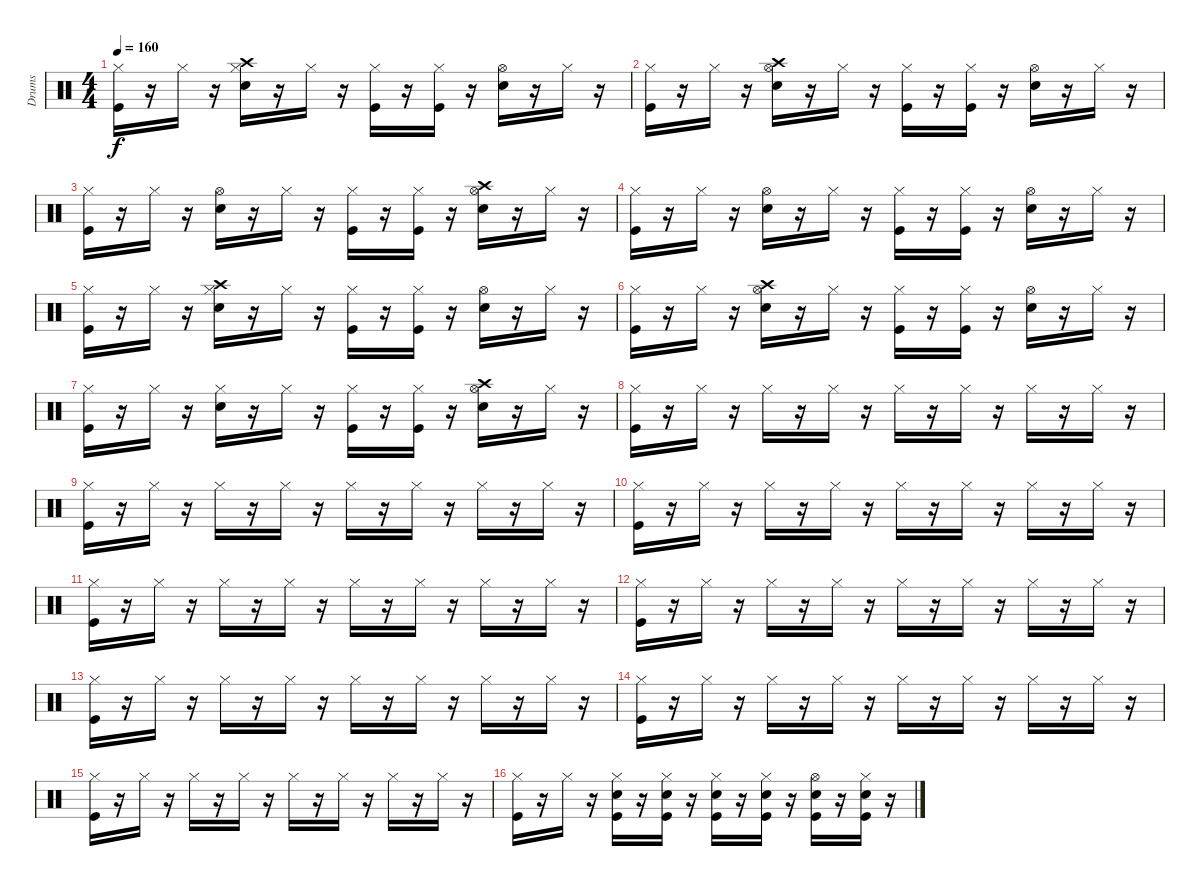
\track ("Drums" "Drums") {instrument percussion}
\staff {score}
\articulation defaults
\ts (4 4)
\tempo 160
\clef neutral
\ks c
("Hi-Hat (closed)" "Kick (hit)").16{dy f} r.16 "Hi-Hat (closed)".16 r.16 ("Crash high (hit)" "Hi-Hat (closed)" "Snare (hit) 2").16 r.16 "Hi-Hat (closed)".16 r.16 ("Hi-Hat (closed)" "Kick (hit)").16 r.16 ("Kick (hit)" "Hi-Hat (closed)").16 r.16 ("Hi-Hat (open)" "Snare (hit) 2").16 r.16 "Hi-Hat (closed)".16 r.16 |
("Hi-Hat (closed)" "Kick (hit)").16 r.16 "Hi-Hat (closed)".16 r.16 ("Crash high (hit)" "Hi-Hat (open)" "Snare (hit) 2").16 r.16 "Hi-Hat (closed)".16 r.16 ("Hi-Hat (closed)" "Kick (hit)").16 r.16 ("Kick (hit)" "Hi-Hat (closed)").16 r.16 ("Hi-Hat (open)" "Snare (hit) 2").16 r.16 "Hi-Hat (closed)".16 r.16 |
("Hi-Hat (closed)" "Kick (hit)").16 r.16 "Hi-Hat (closed)".16 r.16 ("Hi-Hat (open)" "Snare (hit) 2").16 r.16 "Hi-Hat (closed)".16 r.16 ("Hi-Hat (closed)" "Kick (hit)").16 r.16 ("Kick (hit)" "Hi-Hat (closed)").16 r.16 ("Crash high (hit)" "Hi-Hat (open)" "Snare (hit) 2").16 r.16 "Hi-Hat (closed)".16 r.16 |
("Hi-Hat (closed)" "Kick (hit)").16 r.16 "Hi-Hat (closed)".16 r.16 ("Hi-Hat (open)" "Snare (hit) 2").16 r.16 "Hi-Hat (closed)".16 r.16 ("Hi-Hat (closed)" "Kick (hit)").16 r.16 ("Kick (hit)" "Hi-Hat (closed)").16 r.16 ("Hi-Hat (open)" "Snare (hit) 2").16 r.16 "Hi-Hat (closed)".16 r.16 |
("Hi-Hat (closed)" "Kick (hit)").16 r.16 "Hi-Hat (closed)".16 r.16 ("Crash high (hit)" "Hi-Hat (closed)" "Snare (hit) 2").16 r.16 "Hi-Hat (closed)".16 r.16 ("Hi-Hat (closed)" "Kick (hit)").16 r.16 ("Kick (hit)" "Hi-Hat (closed)").16 r.16 ("Hi-Hat (open)" "Snare (hit) 2").16 r.16 "Hi-Hat (closed)".16 r.16 |
("Hi-Hat (closed)" "Kick (hit)").16 r.16 "Hi-Hat (closed)".16 r.16 ("Crash high (hit)" "Hi-Hat (open)" "Snare (hit) 2").16 r.16 "Hi-Hat (closed)".16 r.16 ("Hi-Hat (closed)" "Kick (hit)").16 r.16 ("Kick (hit)" "Hi-Hat (closed)").16 r.16 ("Hi-Hat (open)" "Snare (hit) 2").16 r.16 "Hi-Hat (closed)".16 r.16 |
("Hi-Hat (closed)" "Kick (hit)").16 r.16 "Hi-Hat (closed)".16 r.16 ("Hi-Hat (closed)" "Snare (hit) 2").16 r.16 "Hi-Hat (closed)".16 r.16 ("Hi-Hat (closed)" "Kick (hit)").16 r.16 ("Kick (hit)" "Hi-Hat (closed)").16 r.16 ("Crash high (hit)" "Hi-Hat (open)" "Snare (hit) 2").16 r.16 "Hi-Hat (closed)".16 r.16 |
("Hi-Hat (closed)" "Kick (hit)").16 r.16 "Hi-Hat (closed)".16 r.16 "Hi-Hat (closed)".16 r.16 "Hi-Hat (closed)".16 r.16 "Hi-Hat (closed)".16 r.16 "Hi-Hat (closed)".16 r.16 "Hi-Hat (closed)".16 r.16 "Hi-Hat (closed)".16 r.16 |
("Hi-Hat (closed)" "Kick (hit)").16 r.16 "Hi-Hat (closed)".16 r.16 "Hi-Hat (closed)".16 r.16 "Hi-Hat (closed)".16 r.16 "Hi-Hat (closed)".16 r.16 "Hi-Hat (closed)".16 r.16 "Hi-Hat (closed)".16 r.16 "Hi-Hat (closed)".16 r.16 |
("Hi-Hat (closed)" "Kick (hit)").16 r.16 "Hi-Hat (closed)".16 r.16 "Hi-Hat (closed)".16 r.16 "Hi-Hat (closed)".16 r.16 "Hi-Hat (closed)".16 r.16 "Hi-Hat (closed)".16 r.16 "Hi-Hat (closed)".16 r.16 "Hi-Hat (closed)".16 r.16 |
("Hi-Hat (closed)" "Kick (hit)").16 r.16 "Hi-Hat (closed)".16 r.16 "Hi-Hat (closed)".16 r.16 "Hi-Hat (closed)".16 r.16 "Hi-Hat (closed)".16 r.16 "Hi-Hat (closed)".16 r.16 "Hi-Hat (closed)".16 r.16 "Hi-Hat (closed)".16 r.16 |
("Hi-Hat (closed)" "Kick (hit)").16 r.16 "Hi-Hat (closed)".16 r.16 "Hi-Hat (closed)".16 r.16 "Hi-Hat (closed)".16 r.16 "Hi-Hat (closed)".16 r.16 "Hi-Hat (closed)".16 r.16 "Hi-Hat (closed)".16 r.16 "Hi-Hat (closed)".16 r.16 |
("Hi-Hat (closed)" "Kick (hit)").16 r.16 "Hi-Hat (closed)".16 r.16 "Hi-Hat (closed)".16 r.16 "Hi-Hat (closed)".16 r.16 "Hi-Hat (closed)".16 r.16 "Hi-Hat (closed)".16 r.16 "Hi-Hat (closed)".16 r.16 "Hi-Hat (closed)".16 r.16 |
("Hi-Hat (closed)" "Kick (hit)").16 r.16 "Hi-Hat (closed)".16 r.16 "Hi-Hat (closed)".16 r.16 "Hi-Hat (closed)".16 r.16 "Hi-Hat (closed)".16 r.16 "Hi-Hat (closed)".16 r.16 "Hi-Hat (closed)".16 r.16 "Hi-Hat (closed)".16 r.16 |
("Hi-Hat (closed)" "Kick (hit)").16 r.16 "Hi-Hat (closed)".16 r.16 "Hi-Hat (closed)".16 r.16 "Hi-Hat (closed)".16 r.16 "Hi-Hat (closed)".16 r.16 "Hi-Hat (closed)".16 r.16 "Hi-Hat (closed)".16 r.16 "Hi-Hat (closed)".16 r.16 |
("Hi-Hat (closed)" "Kick (hit)").16 r.16 "Hi-Hat (closed)".16 r.16 ("Hi-Hat (closed)" "Snare (hit) 2" "Kick (hit)").16 r.16 ("Hi-Hat (closed)" "Snare (hit) 2" "Kick (hit)").16 r.16 ("Hi-Hat (closed)" "Snare (hit) 2" "Kick (hit)").16 r.16 ("Hi-Hat (closed)" "Snare (hit) 2" "Kick (hit)").16 r.16 ("Hi-Hat (open)" "Snare (hit) 2" "Kick (hit)").16 r.16 ("Hi-Hat (closed)" "Snare (hit) 2" "Kick (hit)").16 r.16
